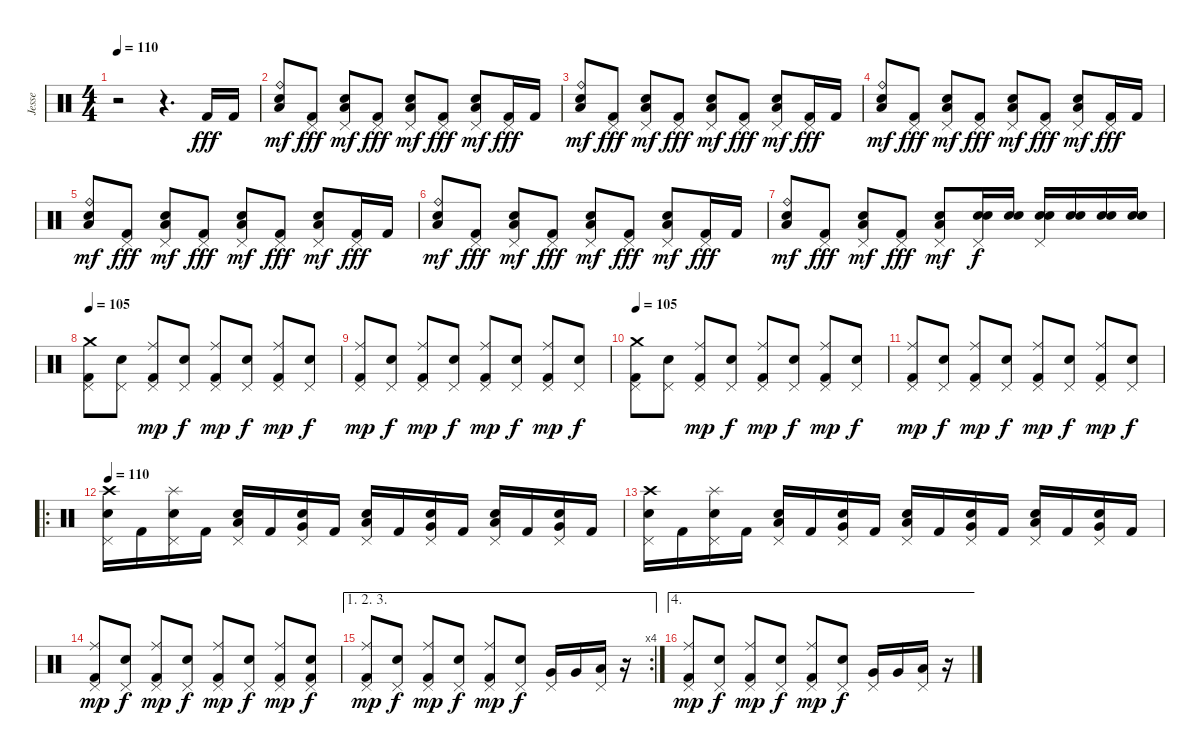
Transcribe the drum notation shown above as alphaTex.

\track ("Jesse" "Jesse") {instrument percussion}
\staff {score}
\articulation defaults
\ts (4 4)
\tempo 110
\clef neutral
\ks c
r.2{dy fff} r.4{d} "Kick (hit) 2".16 "Kick (hit) 2".16 |
("Ride (bell)" "Electric Snare (hit)" "Low Floor Tom (hit)").8{dy mf} ("Pedal Hi-Hat (hit)" "Kick (hit) 2").8{dy fff} ("Pedal Hi-Hat (hit)" "Electric Snare (hit)" "Low Floor Tom (hit)").8{dy mf} ("Pedal Hi-Hat (hit)" "Kick (hit) 2").8{dy fff} ("Pedal Hi-Hat (hit)" "Electric Snare (hit)" "Low Floor Tom (hit)").8{dy mf} ("Pedal Hi-Hat (hit)" "Kick (hit) 2").8{dy fff} ("Pedal Hi-Hat (hit)" "Electric Snare (hit)" "Low Floor Tom (hit)").8{dy mf} ("Pedal Hi-Hat (hit)" "Kick (hit) 2").16{dy fff} "Kick (hit) 2".16 |
("Ride (bell)" "Electric Snare (hit)" "Low Floor Tom (hit)").8{dy mf} ("Pedal Hi-Hat (hit)" "Kick (hit) 2").8{dy fff} ("Pedal Hi-Hat (hit)" "Electric Snare (hit)" "Low Floor Tom (hit)").8{dy mf} ("Pedal Hi-Hat (hit)" "Kick (hit) 2").8{dy fff} ("Pedal Hi-Hat (hit)" "Electric Snare (hit)" "Low Floor Tom (hit)").8{dy mf} ("Pedal Hi-Hat (hit)" "Kick (hit) 2").8{dy fff} ("Pedal Hi-Hat (hit)" "Electric Snare (hit)" "Low Floor Tom (hit)").8{dy mf} ("Pedal Hi-Hat (hit)" "Kick (hit) 2").16{dy fff} "Kick (hit) 2".16 |
("Ride (bell)" "Electric Snare (hit)" "Low Floor Tom (hit)").8{dy mf} ("Pedal Hi-Hat (hit)" "Kick (hit) 2").8{dy fff} ("Pedal Hi-Hat (hit)" "Electric Snare (hit)" "Low Floor Tom (hit)").8{dy mf} ("Pedal Hi-Hat (hit)" "Kick (hit) 2").8{dy fff} ("Pedal Hi-Hat (hit)" "Electric Snare (hit)" "Low Floor Tom (hit)").8{dy mf} ("Pedal Hi-Hat (hit)" "Kick (hit) 2").8{dy fff} ("Pedal Hi-Hat (hit)" "Electric Snare (hit)" "Low Floor Tom (hit)").8{dy mf} ("Pedal Hi-Hat (hit)" "Kick (hit) 2").16{dy fff} "Kick (hit) 2".16 |
("Ride (bell)" "Electric Snare (hit)" "Low Floor Tom (hit)").8{dy mf} ("Pedal Hi-Hat (hit)" "Kick (hit) 2").8{dy fff} ("Pedal Hi-Hat (hit)" "Electric Snare (hit)" "Low Floor Tom (hit)").8{dy mf} ("Pedal Hi-Hat (hit)" "Kick (hit) 2").8{dy fff} ("Pedal Hi-Hat (hit)" "Electric Snare (hit)" "Low Floor Tom (hit)").8{dy mf} ("Pedal Hi-Hat (hit)" "Kick (hit) 2").8{dy fff} ("Pedal Hi-Hat (hit)" "Electric Snare (hit)" "Low Floor Tom (hit)").8{dy mf} ("Pedal Hi-Hat (hit)" "Kick (hit) 2").16{dy fff} "Kick (hit) 2".16 |
("Ride (bell)" "Electric Snare (hit)" "Low Floor Tom (hit)").8{dy mf} ("Pedal Hi-Hat (hit)" "Kick (hit) 2").8{dy fff} ("Pedal Hi-Hat (hit)" "Electric Snare (hit)" "Low Floor Tom (hit)").8{dy mf} ("Pedal Hi-Hat (hit)" "Kick (hit) 2").8{dy fff} ("Pedal Hi-Hat (hit)" "Electric Snare (hit)" "Low Floor Tom (hit)").8{dy mf} ("Pedal Hi-Hat (hit)" "Kick (hit) 2").8{dy fff} ("Pedal Hi-Hat (hit)" "Electric Snare (hit)" "Low Floor Tom (hit)").8{dy mf} ("Pedal Hi-Hat (hit)" "Kick (hit) 2").16{dy fff} "Kick (hit) 2".16 |
("Ride (bell)" "Electric Snare (hit)" "Low Floor Tom (hit)").8{dy mf} ("Pedal Hi-Hat (hit)" "Kick (hit) 2").8{dy fff} ("Pedal Hi-Hat (hit)" "Electric Snare (hit)" "Low Floor Tom (hit)").8{dy mf} ("Pedal Hi-Hat (hit)" "Kick (hit) 2").8{dy fff} ("Pedal Hi-Hat (hit)" "Electric Snare (hit)" "Low Floor Tom (hit)").8{dy mf} ("Pedal Hi-Hat (hit)" "Electric Snare (hit)" "Electric Snare (hit)").16{dy f} ("Electric Snare (hit)" "Electric Snare (hit)").16 ("Pedal Hi-Hat (hit)" "Electric Snare (hit)" "Electric Snare (hit)").16 ("Electric Snare (hit)" "Electric Snare (hit)").16 ("Electric Snare (hit)" "Electric Snare (hit)").16 ("Electric Snare (hit)" "Electric Snare (hit)").16 |
\tempo 105
("Pedal Hi-Hat (hit)" "Crash medium (hit)" "Kick (hit) 2").8 ("Pedal Hi-Hat (hit)" "Electric Snare (hit)").8 ("Pedal Hi-Hat (hit)" "Ride (middle)" "Kick (hit) 2").8{dy mp} ("Pedal Hi-Hat (hit)" "Electric Snare (hit)").8{dy f} ("Pedal Hi-Hat (hit)" "Ride (middle)" "Kick (hit) 2").8{dy mp} ("Pedal Hi-Hat (hit)" "Electric Snare (hit)").8{dy f} ("Pedal Hi-Hat (hit)" "Ride (middle)" "Kick (hit) 2").8{dy mp} ("Pedal Hi-Hat (hit)" "Electric Snare (hit)").8{dy f} |
("Pedal Hi-Hat (hit)" "Ride (middle)" "Kick (hit) 2").8{dy mp} ("Pedal Hi-Hat (hit)" "Electric Snare (hit)").8{dy f} ("Pedal Hi-Hat (hit)" "Ride (middle)" "Kick (hit) 2").8{dy mp} ("Pedal Hi-Hat (hit)" "Electric Snare (hit)").8{dy f} ("Pedal Hi-Hat (hit)" "Ride (middle)" "Kick (hit) 2").8{dy mp} ("Pedal Hi-Hat (hit)" "Electric Snare (hit)").8{dy f} ("Pedal Hi-Hat (hit)" "Ride (middle)" "Kick (hit) 2").8{dy mp} ("Pedal Hi-Hat (hit)" "Electric Snare (hit)").8{dy f} |
\tempo 105
("Pedal Hi-Hat (hit)" "Crash medium (hit)" "Kick (hit) 2").8 ("Pedal Hi-Hat (hit)" "Electric Snare (hit)").8 ("Pedal Hi-Hat (hit)" "Ride (middle)" "Kick (hit) 2").8{dy mp} ("Pedal Hi-Hat (hit)" "Electric Snare (hit)").8{dy f} ("Pedal Hi-Hat (hit)" "Ride (middle)" "Kick (hit) 2").8{dy mp} ("Pedal Hi-Hat (hit)" "Electric Snare (hit)").8{dy f} ("Pedal Hi-Hat (hit)" "Ride (middle)" "Kick (hit) 2").8{dy mp} ("Pedal Hi-Hat (hit)" "Electric Snare (hit)").8{dy f} |
("Pedal Hi-Hat (hit)" "Ride (middle)" "Kick (hit) 2").8{dy mp} ("Pedal Hi-Hat (hit)" "Electric Snare (hit)").8{dy f} ("Pedal Hi-Hat (hit)" "Ride (middle)" "Kick (hit) 2").8{dy mp} ("Pedal Hi-Hat (hit)" "Electric Snare (hit)").8{dy f} ("Pedal Hi-Hat (hit)" "Ride (middle)" "Kick (hit) 2").8{dy mp} ("Pedal Hi-Hat (hit)" "Electric Snare (hit)").8{dy f} ("Pedal Hi-Hat (hit)" "Ride (middle)" "Kick (hit) 2").8{dy mp} ("Pedal Hi-Hat (hit)" "Electric Snare (hit)").8{dy f} |
\ro
\tempo 110
("Pedal Hi-Hat (hit)" "Crash high (hit)" "Electric Snare (hit)").16 "Kick (hit) 2".16 ("Pedal Hi-Hat (hit)" "Splash (hit)" "Electric Snare (hit)").16 "Kick (hit) 2".16 ("Pedal Hi-Hat (hit)" "Low Floor Tom (hit)" "Electric Snare (hit)").16 "Kick (hit) 2".16 ("Pedal Hi-Hat (hit)" "Very Low Tom (hit)" "Electric Snare (hit)").16 "Kick (hit) 2".16 ("Pedal Hi-Hat (hit)" "Low Floor Tom (hit)" "Electric Snare (hit)").16 "Kick (hit) 2".16 ("Pedal Hi-Hat (hit)" "Very Low Tom (hit)" "Electric Snare (hit)").16 "Kick (hit) 2".16 ("Pedal Hi-Hat (hit)" "Low Floor Tom (hit)" "Electric Snare (hit)").16 "Kick (hit) 2".16 ("Pedal Hi-Hat (hit)" "Very Low Tom (hit)" "Electric Snare (hit)").16 "Kick (hit) 2".16 |
("Pedal Hi-Hat (hit)" "Crash high (hit)" "Electric Snare (hit)").16 "Kick (hit) 2".16 ("Pedal Hi-Hat (hit)" "Splash (hit)" "Electric Snare (hit)").16 "Kick (hit) 2".16 ("Pedal Hi-Hat (hit)" "Low Floor Tom (hit)" "Electric Snare (hit)").16 "Kick (hit) 2".16 ("Pedal Hi-Hat (hit)" "Very Low Tom (hit)" "Electric Snare (hit)").16 "Kick (hit) 2".16 ("Pedal Hi-Hat (hit)" "Low Floor Tom (hit)" "Electric Snare (hit)").16 "Kick (hit) 2".16 ("Pedal Hi-Hat (hit)" "Very Low Tom (hit)" "Electric Snare (hit)").16 "Kick (hit) 2".16 ("Pedal Hi-Hat (hit)" "Low Floor Tom (hit)" "Electric Snare (hit)").16 "Kick (hit) 2".16 ("Pedal Hi-Hat (hit)" "Very Low Tom (hit)" "Electric Snare (hit)").16 "Kick (hit) 2".16 |
("Pedal Hi-Hat (hit)" "Ride (middle)" "Kick (hit) 2").8{dy mp} ("Pedal Hi-Hat (hit)" "Electric Snare (hit)").8{dy f} ("Pedal Hi-Hat (hit)" "Ride (middle)" "Kick (hit) 2").8{dy mp} ("Pedal Hi-Hat (hit)" "Electric Snare (hit)").8{dy f} ("Pedal Hi-Hat (hit)" "Ride (middle)" "Kick (hit) 2").8{dy mp} ("Pedal Hi-Hat (hit)" "Electric Snare (hit)").8{dy f} ("Pedal Hi-Hat (hit)" "Ride (middle)" "Kick (hit) 2").8{dy mp} ("Pedal Hi-Hat (hit)" "Electric Snare (hit)" "Kick (hit) 2").8{dy f} |
\ae (1 2 3)
\rc 4
("Pedal Hi-Hat (hit)" "Ride (middle)" "Kick (hit) 2").8{dy mp} ("Pedal Hi-Hat (hit)" "Electric Snare (hit)").8{dy f} ("Pedal Hi-Hat (hit)" "Ride (middle)" "Kick (hit) 2").8{dy mp} ("Pedal Hi-Hat (hit)" "Electric Snare (hit)").8{dy f} ("Pedal Hi-Hat (hit)" "Ride (middle)" "Kick (hit) 2").8{dy mp} ("Pedal Hi-Hat (hit)" "Electric Snare (hit)").8{dy f} ("Pedal Hi-Hat (hit)" "Very Low Tom (hit)").16 "Very Low Tom (hit)".16 ("Pedal Hi-Hat (hit)" "Low Tom (hit)").16 r.16 |
\ae 4
("Pedal Hi-Hat (hit)" "Ride (middle)" "Kick (hit) 2").8{dy mp} ("Pedal Hi-Hat (hit)" "Electric Snare (hit)").8{dy f} ("Pedal Hi-Hat (hit)" "Ride (middle)" "Kick (hit) 2").8{dy mp} ("Pedal Hi-Hat (hit)" "Electric Snare (hit)").8{dy f} ("Pedal Hi-Hat (hit)" "Ride (middle)" "Kick (hit) 2").8{dy mp} ("Pedal Hi-Hat (hit)" "Electric Snare (hit)").8{dy f} ("Pedal Hi-Hat (hit)" "Very Low Tom (hit)").16 "Very Low Tom (hit)".16 ("Pedal Hi-Hat (hit)" "Low Tom (hit)").16 r.16
